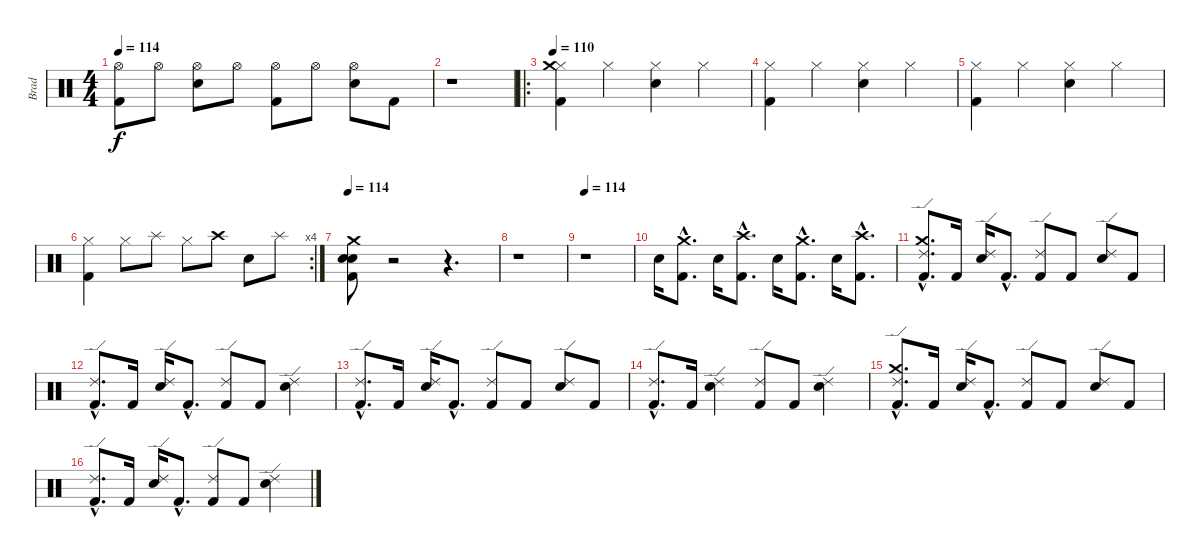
\track ("Brad" "Brad") {instrument percussion}
\staff {score}
\articulation defaults
\ts (4 4)
\tempo 114
\clef neutral
\ks c
("Hi-Hat (open)" "Kick (hit) 2").8{dy f} "Hi-Hat (open)".8 ("Hi-Hat (open)" "Snare (hit) 2").8 "Hi-Hat (open)".8 ("Hi-Hat (open)" "Kick (hit) 2").8 "Hi-Hat (open)".8 ("Hi-Hat (open)" "Snare (hit) 2").8 "Kick (hit) 2".8 |
r.1 |
\ro
\tempo 110
("Hi-Hat (closed)" "Kick (hit) 2" "Crash medium (hit)").4 "Hi-Hat (closed)".4 ("Hi-Hat (closed)" "Snare (hit) 2").4 "Hi-Hat (closed)".4 |
("Hi-Hat (closed)" "Kick (hit) 2").4 "Hi-Hat (closed)".4 ("Hi-Hat (closed)" "Snare (hit) 2").4 "Hi-Hat (closed)".4 |
("Hi-Hat (closed)" "Kick (hit) 2").4 "Hi-Hat (closed)".4 ("Hi-Hat (closed)" "Snare (hit) 2").4 "Hi-Hat (closed)".4 |
\rc 4
("Hi-Hat (closed)" "Kick (hit) 2").4 "Hi-Hat (closed)".8 "Splash (hit)".8 "Hi-Hat (closed)".8 "Crash high (hit)".8 "Snare (hit) 2".8 "Splash (hit)".8 |
\tempo 114
("Crash medium (hit)" "Kick (hit) 2" "Snare (hit) 2" "Snare (hit) 2").8 r.2 r.4{d} |
r.1 |
\tempo 114
r.1 |
"Snare (hit) 2".16 ("Kick (hit) 2"{hac} "Crash medium (hit)"{hac}).8{d} "Snare (hit) 2".16 ("Kick (hit) 2"{hac} "Crash high (hit)"{hac}).8{d} "Snare (hit) 2".16 ("Kick (hit) 2"{hac} "Crash medium (hit)"{hac}).8{d} "Snare (hit) 2".16 ("Kick (hit) 2"{hac} "Crash high (hit)"{hac}).8{d} |
("Ride (edge) 2"{hac} "Kick (hit) 2"{hac} "Crash medium (hit)"{hac}).8{d} "Kick (hit) 2".16 ("Ride (edge) 2" "Snare (hit) 2").16 "Kick (hit) 2"{hac}.8{d} ("Ride (edge) 2" "Kick (hit) 2").8 "Kick (hit) 2".8 ("Ride (edge) 2" "Snare (hit) 2").8 "Kick (hit) 2".8 |
("Ride (edge) 2"{hac} "Kick (hit) 2"{hac}).8{d} "Kick (hit) 2".16 ("Ride (edge) 2" "Snare (hit) 2").16 "Kick (hit) 2"{hac}.8{d} ("Ride (edge) 2" "Kick (hit) 2").8 "Kick (hit) 2".8 ("Ride (edge) 2" "Snare (hit) 2").4 |
("Ride (edge) 2"{hac} "Kick (hit) 2"{hac}).8{d} "Kick (hit) 2".16 ("Ride (edge) 2" "Snare (hit) 2").16 "Kick (hit) 2"{hac}.8{d} ("Ride (edge) 2" "Kick (hit) 2").8 "Kick (hit) 2".8 ("Ride (edge) 2" "Snare (hit) 2").8 "Kick (hit) 2".8 |
("Ride (edge) 2"{hac} "Kick (hit) 2"{hac}).8{d} "Kick (hit) 2".16 ("Ride (edge) 2" "Snare (hit) 2").4 ("Ride (edge) 2" "Kick (hit) 2").8 "Kick (hit) 2".8 ("Ride (edge) 2" "Snare (hit) 2").4 |
("Ride (edge) 2"{hac} "Kick (hit) 2"{hac} "Crash medium (hit)"{hac}).8{d} "Kick (hit) 2".16 ("Ride (edge) 2" "Snare (hit) 2").16 "Kick (hit) 2"{hac}.8{d} ("Ride (edge) 2" "Kick (hit) 2").8 "Kick (hit) 2".8 ("Ride (edge) 2" "Snare (hit) 2").8 "Kick (hit) 2".8 |
("Ride (edge) 2"{hac} "Kick (hit) 2"{hac}).8{d} "Kick (hit) 2".16 ("Ride (edge) 2" "Snare (hit) 2").16 "Kick (hit) 2"{hac}.8{d} ("Ride (edge) 2" "Kick (hit) 2").8 "Kick (hit) 2".8 ("Ride (edge) 2" "Snare (hit) 2").4
